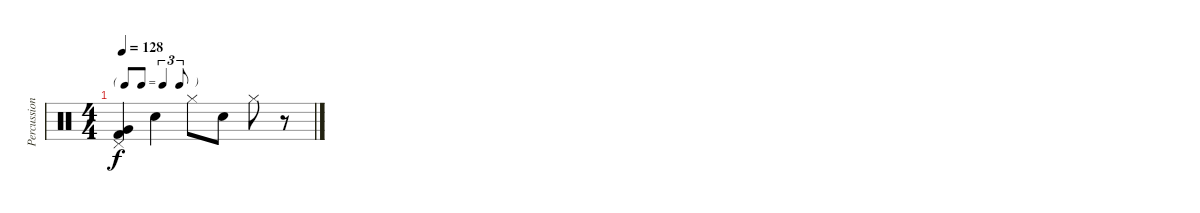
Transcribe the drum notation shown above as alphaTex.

\track ("Percussions" "Percussion") {instrument percussion}
\staff {score}
\articulation defaults
\ts (4 4)
\tf triplet8th
\tempo 128
\clef neutral
\ks c
("Kick (hit) 2" "Pedal Hi-Hat (hit)" "Very Low Tom (hit)").4{dy f} "Electric Snare (hit)".4 "Hi-Hat (closed)".8 "Snare (hit) 2".8 "Hi-Hat (closed)".8 r.8
